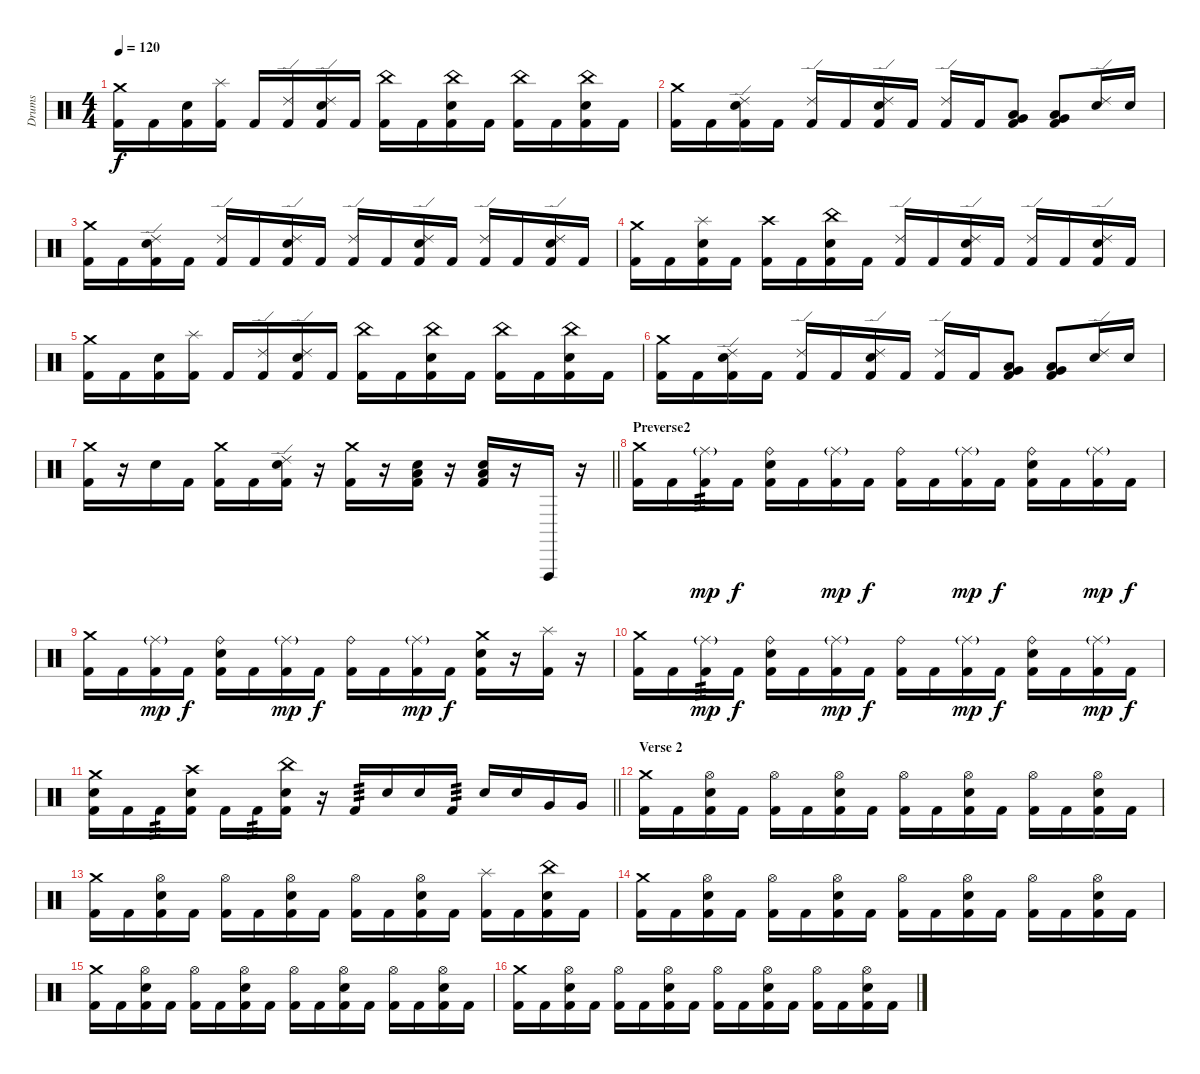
\track ("Drums" "Drums") {instrument percussion}
\staff {score}
\articulation defaults
\ts (4 4)
\tempo 120
\clef neutral
\ks c
("Crash medium (hit)" "Kick (hit) 2").16{dy f} "Kick (hit) 2".16 ("Snare (hit) 2" "Kick (hit) 2").16 ("Splash (hit)" "Kick (hit) 2").16 "Kick (hit) 2".16 ("Ride (edge) 2" "Kick (hit) 2").16 ("Ride (edge) 2" "Snare (hit) 2" "Kick (hit) 2").16 "Kick (hit) 2".16 ("China (hit)" "Kick (hit) 2").16 "Kick (hit) 2".16 ("China (hit)" "Snare (hit) 2" "Kick (hit) 2").16 "Kick (hit) 2".16 ("China (hit)" "Kick (hit) 2").16 "Kick (hit) 2".16 ("China (hit)" "Snare (hit) 2" "Kick (hit) 2").16 "Kick (hit) 2".16 |
("Crash medium (hit)" "Kick (hit) 2").16 "Kick (hit) 2".16 ("Ride (edge) 2" "Snare (hit) 2" "Kick (hit) 2").16 "Kick (hit) 2".16 ("Ride (edge) 2" "Kick (hit) 2").16 "Kick (hit) 2".16 ("Ride (edge) 2" "Snare (hit) 2" "Kick (hit) 2").16 "Kick (hit) 2".16 ("Ride (edge) 2" "Kick (hit) 2").16 "Kick (hit) 2".16 ("Very Low Tom (hit)" "Low Floor Tom (hit)" "Kick (hit) 2").8 ("Very Low Tom (hit)" "Low Floor Tom (hit)" "Kick (hit) 2").8 ("Ride (edge) 2" "Snare (hit) 2").16 "Snare (hit) 2".16 |
("Crash medium (hit)" "Kick (hit) 2").16 "Kick (hit) 2".16 ("Ride (edge) 2" "Snare (hit) 2" "Kick (hit) 2").16 "Kick (hit) 2".16 ("Ride (edge) 2" "Kick (hit) 2").16 "Kick (hit) 2".16 ("Ride (edge) 2" "Snare (hit) 2" "Kick (hit) 2").16 "Kick (hit) 2".16 ("Ride (edge) 2" "Kick (hit) 2").16 "Kick (hit) 2".16 ("Ride (edge) 2" "Snare (hit) 2" "Kick (hit) 2").16 "Kick (hit) 2".16 ("Ride (edge) 2" "Kick (hit) 2").16 "Kick (hit) 2".16 ("Ride (edge) 2" "Snare (hit) 2" "Kick (hit) 2").16 "Kick (hit) 2".16 |
("Crash medium (hit)" "Kick (hit) 2").16 "Kick (hit) 2".16 ("Splash (hit)" "Snare (hit) 2" "Kick (hit) 2").16 "Kick (hit) 2".16 ("Crash high (hit)" "Kick (hit) 2").16 "Kick (hit) 2".16 ("China (hit)" "Snare (hit) 2" "Kick (hit) 2").16 "Kick (hit) 2".16 ("Ride (edge) 2" "Kick (hit) 2").16 "Kick (hit) 2".16 ("Ride (edge) 2" "Snare (hit) 2" "Kick (hit) 2").16 "Kick (hit) 2".16 ("Ride (edge) 2" "Kick (hit) 2").16 "Kick (hit) 2".16 ("Ride (edge) 2" "Snare (hit) 2" "Kick (hit) 2").16 "Kick (hit) 2".16 |
("Crash medium (hit)" "Kick (hit) 2").16 "Kick (hit) 2".16 ("Snare (hit) 2" "Kick (hit) 2").16 ("Splash (hit)" "Kick (hit) 2").16 "Kick (hit) 2".16 ("Ride (edge) 2" "Kick (hit) 2").16 ("Ride (edge) 2" "Snare (hit) 2" "Kick (hit) 2").16 "Kick (hit) 2".16 ("China (hit)" "Kick (hit) 2").16 "Kick (hit) 2".16 ("China (hit)" "Snare (hit) 2" "Kick (hit) 2").16 "Kick (hit) 2".16 ("China (hit)" "Kick (hit) 2").16 "Kick (hit) 2".16 ("China (hit)" "Snare (hit) 2" "Kick (hit) 2").16 "Kick (hit) 2".16 |
("Crash medium (hit)" "Kick (hit) 2").16 "Kick (hit) 2".16 ("Ride (edge) 2" "Snare (hit) 2" "Kick (hit) 2").16 "Kick (hit) 2".16 ("Ride (edge) 2" "Kick (hit) 2").16 "Kick (hit) 2".16 ("Ride (edge) 2" "Snare (hit) 2" "Kick (hit) 2").16 "Kick (hit) 2".16 ("Ride (edge) 2" "Kick (hit) 2").16 "Kick (hit) 2".16 ("Very Low Tom (hit)" "Low Floor Tom (hit)" "Kick (hit) 2").8 ("Very Low Tom (hit)" "Low Floor Tom (hit)" "Kick (hit) 2").8 ("Ride (edge) 2" "Snare (hit) 2").16 "Snare (hit) 2".16 |
\barLineRight lightlight
("Crash medium (hit)" "Kick (hit) 2").16 r.16 "Snare (hit) 2".16 "Kick (hit) 2".16 ("Crash medium (hit)" "Kick (hit) 2").16 "Kick (hit) 2".16 ("Ride (edge) 2" "Snare (hit) 2" "Kick (hit) 2").16 r.16 ("Crash medium (hit)" "Kick (hit) 2").16 r.16 ("Low Floor Tom (hit)" "Snare (hit) 2" "Kick (hit) 2").16 r.16 ("Low Floor Tom (hit)" "Snare (hit) 2" "Kick (hit) 2").16 r.16 "Vibraslap (hit)".16 r.16 |
\section ("" "Preverse2")
("Crash medium (hit)" "Kick (hit) 2").16 "Kick (hit) 2".16 ("Ride (middle)"{g} "Kick (hit) 2").16{tp 3 dy mp} "Kick (hit) 2".16{dy f} ("Ride (bell)" "Snare (hit) 2" "Kick (hit) 2").16 "Kick (hit) 2".16 ("Ride (middle)"{g} "Kick (hit) 2").16{dy mp} "Kick (hit) 2".16{dy f} ("Ride (bell)" "Kick (hit) 2").16 "Kick (hit) 2".16 ("Ride (middle)"{g} "Kick (hit) 2").16{dy mp} "Kick (hit) 2".16{dy f} ("Ride (bell)" "Snare (hit) 2" "Kick (hit) 2").16 "Kick (hit) 2".16 ("Ride (middle)"{g} "Kick (hit) 2").16{dy mp} "Kick (hit) 2".16{dy f} |
("Crash medium (hit)" "Kick (hit) 2").16 "Kick (hit) 2".16 ("Ride (middle)"{g} "Kick (hit) 2").16{dy mp} "Kick (hit) 2".16{dy f} ("Ride (bell)" "Snare (hit) 2" "Kick (hit) 2").16 "Kick (hit) 2".16 ("Ride (middle)"{g} "Kick (hit) 2").16{dy mp} "Kick (hit) 2".16{dy f} ("Ride (bell)" "Kick (hit) 2").16 "Kick (hit) 2".16 ("Ride (middle)"{g} "Kick (hit) 2").16{dy mp} "Kick (hit) 2".16{dy f} ("Crash medium (hit)" "Snare (hit) 2" "Kick (hit) 2").16 r.16 ("Splash (hit)" "Kick (hit) 2").16 r.16 |
("Crash medium (hit)" "Kick (hit) 2").16 "Kick (hit) 2".16 ("Ride (middle)"{g} "Kick (hit) 2").16{tp 3 dy mp} "Kick (hit) 2".16{dy f} ("Ride (bell)" "Snare (hit) 2" "Kick (hit) 2").16 "Kick (hit) 2".16 ("Ride (middle)"{g} "Kick (hit) 2").16{dy mp} "Kick (hit) 2".16{dy f} ("Ride (bell)" "Kick (hit) 2").16 "Kick (hit) 2".16 ("Ride (middle)"{g} "Kick (hit) 2").16{dy mp} "Kick (hit) 2".16{dy f} ("Ride (bell)" "Snare (hit) 2" "Kick (hit) 2").16 "Kick (hit) 2".16 ("Ride (middle)"{g} "Kick (hit) 2").16{dy mp} "Kick (hit) 2".16{dy f} |
\barLineRight lightlight
("Crash medium (hit)" "Snare (hit) 2" "Kick (hit) 2").16 "Kick (hit) 2".16 "Kick (hit) 2".16{tp 3} ("Crash high (hit)" "Snare (hit) 2" "Kick (hit) 2").16 "Kick (hit) 2".16 "Kick (hit) 2".16{tp 3} ("China (hit)" "Snare (hit) 2" "Kick (hit) 2").16 r.16 "Kick (hit) 2".16{tp 3} "Snare (hit) 2".16 "Snare (hit) 2".16 "Kick (hit) 2".16{tp 3} "Snare (hit) 2".16 "Snare (hit) 2".16 "Very Low Tom (hit)".16 "Very Low Tom (hit)".16 |
\section ("" "Verse 2")
("Crash medium (hit)" "Kick (hit) 2").16 "Kick (hit) 2".16 ("Hi-Hat (open)" "Snare (hit) 2" "Kick (hit) 2").16 "Kick (hit) 2".16 ("Hi-Hat (open)" "Kick (hit) 2").16 "Kick (hit) 2".16 ("Hi-Hat (open)" "Snare (hit) 2" "Kick (hit) 2").16 "Kick (hit) 2".16 ("Hi-Hat (open)" "Kick (hit) 2").16 "Kick (hit) 2".16 ("Hi-Hat (open)" "Snare (hit) 2" "Kick (hit) 2").16 "Kick (hit) 2".16 ("Hi-Hat (open)" "Kick (hit) 2").16 "Kick (hit) 2".16 ("Hi-Hat (open)" "Snare (hit) 2" "Kick (hit) 2").16 "Kick (hit) 2".16 |
("Crash medium (hit)" "Kick (hit) 2").16 "Kick (hit) 2".16 ("Hi-Hat (open)" "Snare (hit) 2" "Kick (hit) 2").16 "Kick (hit) 2".16 ("Hi-Hat (open)" "Kick (hit) 2").16 "Kick (hit) 2".16 ("Hi-Hat (open)" "Snare (hit) 2" "Kick (hit) 2").16 "Kick (hit) 2".16 ("Hi-Hat (open)" "Kick (hit) 2").16 "Kick (hit) 2".16 ("Hi-Hat (open)" "Snare (hit) 2" "Kick (hit) 2").16 "Kick (hit) 2".16 ("Splash (hit)" "Kick (hit) 2").16 "Kick (hit) 2".16 ("China (hit)" "Snare (hit) 2" "Kick (hit) 2").16 "Kick (hit) 2".16 |
("Crash medium (hit)" "Kick (hit) 2").16 "Kick (hit) 2".16 ("Hi-Hat (open)" "Snare (hit) 2" "Kick (hit) 2").16 "Kick (hit) 2".16 ("Hi-Hat (open)" "Kick (hit) 2").16 "Kick (hit) 2".16 ("Hi-Hat (open)" "Snare (hit) 2" "Kick (hit) 2").16 "Kick (hit) 2".16 ("Hi-Hat (open)" "Kick (hit) 2").16 "Kick (hit) 2".16 ("Hi-Hat (open)" "Snare (hit) 2" "Kick (hit) 2").16 "Kick (hit) 2".16 ("Hi-Hat (open)" "Kick (hit) 2").16 "Kick (hit) 2".16 ("Hi-Hat (open)" "Snare (hit) 2" "Kick (hit) 2").16 "Kick (hit) 2".16 |
("Crash medium (hit)" "Kick (hit) 2").16 "Kick (hit) 2".16 ("Hi-Hat (open)" "Snare (hit) 2" "Kick (hit) 2").16 "Kick (hit) 2".16 ("Hi-Hat (open)" "Kick (hit) 2").16 "Kick (hit) 2".16 ("Hi-Hat (open)" "Snare (hit) 2" "Kick (hit) 2").16 "Kick (hit) 2".16 ("Hi-Hat (open)" "Kick (hit) 2").16 "Kick (hit) 2".16 ("Hi-Hat (open)" "Snare (hit) 2" "Kick (hit) 2").16 "Kick (hit) 2".16 ("Hi-Hat (open)" "Kick (hit) 2").16 "Kick (hit) 2".16 ("Hi-Hat (open)" "Snare (hit) 2" "Kick (hit) 2").16 "Kick (hit) 2".16 |
("Crash medium (hit)" "Kick (hit) 2").16 "Kick (hit) 2".16 ("Hi-Hat (open)" "Snare (hit) 2" "Kick (hit) 2").16 "Kick (hit) 2".16 ("Hi-Hat (open)" "Kick (hit) 2").16 "Kick (hit) 2".16 ("Hi-Hat (open)" "Snare (hit) 2" "Kick (hit) 2").16 "Kick (hit) 2".16 ("Hi-Hat (open)" "Kick (hit) 2").16 "Kick (hit) 2".16 ("Hi-Hat (open)" "Snare (hit) 2" "Kick (hit) 2").16 "Kick (hit) 2".16 ("Hi-Hat (open)" "Kick (hit) 2").16 "Kick (hit) 2".16 ("Hi-Hat (open)" "Snare (hit) 2" "Kick (hit) 2").16 "Kick (hit) 2".16
